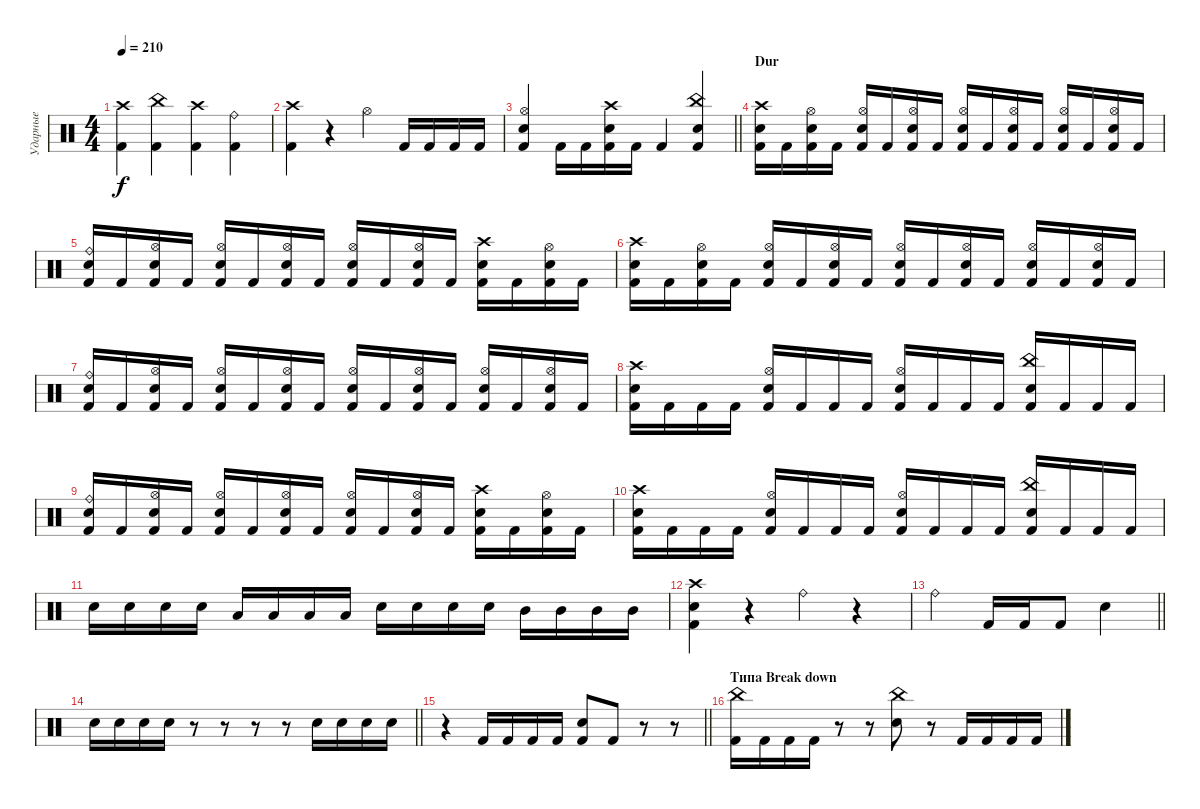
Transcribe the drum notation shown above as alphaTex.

\track ("Ударные" "Ударные") {instrument percussion}
\staff {score}
\articulation defaults
\ts (4 4)
\tempo 210
\clef neutral
\ks c
("Crash high (hit)" "Kick (hit) 2").4{dy f} ("China (hit)" "Kick (hit) 2").4 ("Crash high (hit)" "Kick (hit) 2").4 ("Ride (bell)" "Kick (hit) 2").4 |
("Crash high (hit)" "Kick (hit) 2").4 r.4 "Hi-Hat (open)".4 "Kick (hit) 2".16 "Kick (hit) 2".16 "Kick (hit) 2".16 "Kick (hit) 2".16 |
\barLineRight lightlight
("Hi-Hat (open)" "Snare (hit) 2" "Kick (hit) 2").4 "Kick (hit) 2".16 "Kick (hit) 2".16 ("Crash high (hit)" "Snare (hit) 2" "Kick (hit) 2").16 "Kick (hit) 2".16 "Kick (hit) 2".4 ("China (hit)" "Snare (hit) 2" "Kick (hit) 2").4 |
\section ("" "Dur")
("Crash high (hit)" "Snare (hit) 2" "Kick (hit) 2").16 "Kick (hit) 2".16 ("Hi-Hat (open)" "Snare (hit) 2" "Kick (hit) 2").16 "Kick (hit) 2".16 ("Hi-Hat (open)" "Snare (hit) 2" "Kick (hit) 2").16 "Kick (hit) 2".16 ("Hi-Hat (open)" "Snare (hit) 2" "Kick (hit) 2").16 "Kick (hit) 2".16 ("Hi-Hat (open)" "Snare (hit) 2" "Kick (hit) 2").16 "Kick (hit) 2".16 ("Hi-Hat (open)" "Snare (hit) 2" "Kick (hit) 2").16 "Kick (hit) 2".16 ("Hi-Hat (open)" "Snare (hit) 2" "Kick (hit) 2").16 "Kick (hit) 2".16 ("Hi-Hat (open)" "Snare (hit) 2" "Kick (hit) 2").16 "Kick (hit) 2".16 |
("Ride (bell)" "Snare (hit) 2" "Kick (hit) 2").16 "Kick (hit) 2".16 ("Hi-Hat (open)" "Snare (hit) 2" "Kick (hit) 2").16 "Kick (hit) 2".16 ("Hi-Hat (open)" "Snare (hit) 2" "Kick (hit) 2").16 "Kick (hit) 2".16 ("Hi-Hat (open)" "Snare (hit) 2" "Kick (hit) 2").16 "Kick (hit) 2".16 ("Hi-Hat (open)" "Snare (hit) 2" "Kick (hit) 2").16 "Kick (hit) 2".16 ("Hi-Hat (open)" "Snare (hit) 2" "Kick (hit) 2").16 "Kick (hit) 2".16 ("Crash high (hit)" "Snare (hit) 2" "Kick (hit) 2").16 "Kick (hit) 2".16 ("Hi-Hat (open)" "Snare (hit) 2" "Kick (hit) 2").16 "Kick (hit) 2".16 |
("Crash high (hit)" "Snare (hit) 2" "Kick (hit) 2").16 "Kick (hit) 2".16 ("Hi-Hat (open)" "Snare (hit) 2" "Kick (hit) 2").16 "Kick (hit) 2".16 ("Hi-Hat (open)" "Snare (hit) 2" "Kick (hit) 2").16 "Kick (hit) 2".16 ("Hi-Hat (open)" "Snare (hit) 2" "Kick (hit) 2").16 "Kick (hit) 2".16 ("Hi-Hat (open)" "Snare (hit) 2" "Kick (hit) 2").16 "Kick (hit) 2".16 ("Hi-Hat (open)" "Snare (hit) 2" "Kick (hit) 2").16 "Kick (hit) 2".16 ("Hi-Hat (open)" "Snare (hit) 2" "Kick (hit) 2").16 "Kick (hit) 2".16 ("Hi-Hat (open)" "Snare (hit) 2" "Kick (hit) 2").16 "Kick (hit) 2".16 |
("Ride (bell)" "Snare (hit) 2" "Kick (hit) 2").16 "Kick (hit) 2".16 ("Hi-Hat (open)" "Snare (hit) 2" "Kick (hit) 2").16 "Kick (hit) 2".16 ("Hi-Hat (open)" "Snare (hit) 2" "Kick (hit) 2").16 "Kick (hit) 2".16 ("Hi-Hat (open)" "Snare (hit) 2" "Kick (hit) 2").16 "Kick (hit) 2".16 ("Hi-Hat (open)" "Snare (hit) 2" "Kick (hit) 2").16 "Kick (hit) 2".16 ("Hi-Hat (open)" "Snare (hit) 2" "Kick (hit) 2").16 "Kick (hit) 2".16 ("Hi-Hat (open)" "Snare (hit) 2" "Kick (hit) 2").16 "Kick (hit) 2".16 ("Hi-Hat (open)" "Snare (hit) 2" "Kick (hit) 2").16 "Kick (hit) 2".16 |
("Crash high (hit)" "Snare (hit) 2" "Kick (hit) 2").16 "Kick (hit) 2".16 "Kick (hit) 2".16 "Kick (hit) 2".16 ("Hi-Hat (open)" "Snare (hit) 2" "Kick (hit) 2").16 "Kick (hit) 2".16 "Kick (hit) 2".16 "Kick (hit) 2".16 ("Hi-Hat (open)" "Snare (hit) 2" "Kick (hit) 2").16 "Kick (hit) 2".16 "Kick (hit) 2".16 "Kick (hit) 2".16 ("China (hit)" "Snare (hit) 2" "Kick (hit) 2").16 "Kick (hit) 2".16 "Kick (hit) 2".16 "Kick (hit) 2".16 |
("Ride (bell)" "Snare (hit) 2" "Kick (hit) 2").16 "Kick (hit) 2".16 ("Hi-Hat (open)" "Snare (hit) 2" "Kick (hit) 2").16 "Kick (hit) 2".16 ("Hi-Hat (open)" "Snare (hit) 2" "Kick (hit) 2").16 "Kick (hit) 2".16 ("Hi-Hat (open)" "Snare (hit) 2" "Kick (hit) 2").16 "Kick (hit) 2".16 ("Hi-Hat (open)" "Snare (hit) 2" "Kick (hit) 2").16 "Kick (hit) 2".16 ("Hi-Hat (open)" "Snare (hit) 2" "Kick (hit) 2").16 "Kick (hit) 2".16 ("Crash high (hit)" "Snare (hit) 2" "Kick (hit) 2").16 "Kick (hit) 2".16 ("Hi-Hat (open)" "Snare (hit) 2" "Kick (hit) 2").16 "Kick (hit) 2".16 |
("Crash high (hit)" "Snare (hit) 2" "Kick (hit) 2").16 "Kick (hit) 2".16 "Kick (hit) 2".16 "Kick (hit) 2".16 ("Hi-Hat (open)" "Snare (hit) 2" "Kick (hit) 2").16 "Kick (hit) 2".16 "Kick (hit) 2".16 "Kick (hit) 2".16 ("Hi-Hat (open)" "Snare (hit) 2" "Kick (hit) 2").16 "Kick (hit) 2".16 "Kick (hit) 2".16 "Kick (hit) 2".16 ("China (hit)" "Snare (hit) 2" "Kick (hit) 2").16 "Kick (hit) 2".16 "Kick (hit) 2".16 "Kick (hit) 2".16 |
"Snare (hit) 2".16 "Snare (hit) 2".16 "Snare (hit) 2".16 "Snare (hit) 2".16 "Low Tom (hit)".16 "Low Tom (hit)".16 "Low Tom (hit)".16 "Low Tom (hit)".16 "Snare (hit) 2".16 "Snare (hit) 2".16 "Snare (hit) 2".16 "Snare (hit) 2".16 "Mid Tom (hit)".16 "Mid Tom (hit)".16 "Mid Tom (hit)".16 "Mid Tom (hit)".16 |
("Crash high (hit)" "Snare (hit) 2" "Kick (hit) 2").4 r.4 "Ride (bell)".4 r.4 |
\barLineRight lightlight "Ride (bell)".4 "Kick (hit) 2".16 "Kick (hit) 2".16 "Kick (hit) 2".8 "Snare (hit) 2".4
|
\barLineRight lightlight "Snare (hit) 2".16 "Snare (hit) 2".16 "Snare (hit) 2".16 "Snare (hit) 2".16
r.8 r.8 r.8 r.8 "Snare (hit) 2".16 "Snare (hit) 2".16 "Snare (hit) 2".16 "Snare (hit) 2".16 |
\barLineRight lightlight
r.4 "Kick (hit) 2".16 "Kick (hit) 2".16 "Kick (hit) 2".16 "Kick (hit) 2".16 ("Snare (hit) 2" "Kick (hit) 2").8 "Kick (hit) 2".8 r.8 r.8 |
\section ("" "Типа Break down")
("China (hit)" "Kick (hit) 2").16 "Kick (hit) 2".16 "Kick (hit) 2".16 "Kick (hit) 2".16 r.8 r.8 ("China (hit)" "Snare (hit) 2").8 r.8 "Kick (hit) 2".16 "Kick (hit) 2".16 "Kick (hit) 2".16 "Kick (hit) 2".16
